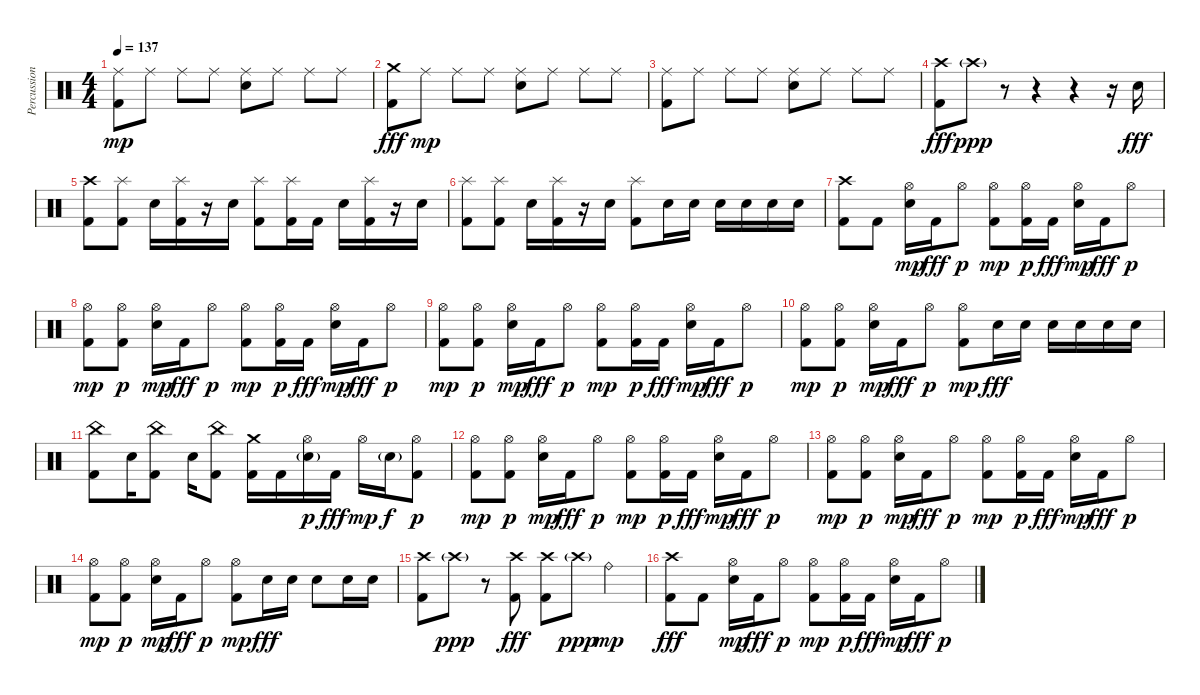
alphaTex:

\track ("Percussion" "Percussion") {instrument percussion}
\staff {score}
\articulation defaults
\ts (4 4)
\tempo 137
\clef neutral
\ks c
("Kick (hit) 2" "Ride (middle)").8{dy mp} "Ride (middle)".8 "Ride (middle)".8 "Ride (middle)".8 ("Electric Snare (hit)" "Ride (middle)").8 "Ride (middle)".8 "Ride (middle)".8 "Ride (middle)".8 |
("Kick (hit) 2" "Crash medium (hit)").8{dy fff} "Ride (middle)".8{dy mp} "Ride (middle)".8 "Ride (middle)".8 ("Electric Snare (hit)" "Ride (middle)").8 "Ride (middle)".8 "Ride (middle)".8 "Ride (middle)".8 |
("Kick (hit) 2" "Ride (middle)").8 "Ride (middle)".8 "Ride (middle)".8 "Ride (middle)".8 ("Electric Snare (hit)" "Ride (middle)").8 "Ride (middle)".8 "Ride (middle)".8 "Ride (middle)".8 |
("Kick (hit) 2" "Crash high (hit)").8{dy fff} "Crash high (hit)"{g}.8{dy ppp} r.8 r.4 r.4 r.16 "Electric Snare (hit)".16{dy fff} |
("Kick (hit) 2" "Crash high (hit)").8 ("Kick (hit) 2" "Splash (hit)").8 "Electric Snare (hit)".16 ("Kick (hit) 2" "Splash (hit)").16 r.16 "Electric Snare (hit)".16 ("Kick (hit) 2" "Splash (hit)").8 ("Kick (hit) 2" "Splash (hit)").16 "Kick (hit) 2".16 "Electric Snare (hit)".16 ("Kick (hit) 2" "Splash (hit)").16 r.16 "Electric Snare (hit)".16 |
("Kick (hit) 2" "Splash (hit)").8 ("Kick (hit) 2" "Splash (hit)").8 "Electric Snare (hit)".16 ("Kick (hit) 2" "Splash (hit)").16 r.16 "Electric Snare (hit)".16 ("Kick (hit) 2" "Splash (hit)").8 "Electric Snare (hit)".16 "Electric Snare (hit)".16 "Electric Snare (hit)".16 "Electric Snare (hit)".16 "Electric Snare (hit)".16 "Electric Snare (hit)".16 |
("Kick (hit) 2" "Crash high (hit)").8 "Kick (hit) 2".8 ("Electric Snare (hit)" "Hi-Hat (open)").16{dy mp} "Kick (hit) 2".16{dy fff} "Hi-Hat (open)".8{dy p} ("Kick (hit) 2" "Hi-Hat (open)").8{dy mp} ("Kick (hit) 2" "Hi-Hat (open)").16{dy p} "Kick (hit) 2".16{dy fff} ("Electric Snare (hit)" "Hi-Hat (open)").16{dy mp} "Kick (hit) 2".16{dy fff} "Hi-Hat (open)".8{dy p} |
("Kick (hit) 2" "Hi-Hat (open)").8{dy mp} ("Kick (hit) 2" "Hi-Hat (open)").8{dy p} ("Electric Snare (hit)" "Hi-Hat (open)").16{dy mp} "Kick (hit) 2".16{dy fff} "Hi-Hat (open)".8{dy p} ("Kick (hit) 2" "Hi-Hat (open)").8{dy mp} ("Kick (hit) 2" "Hi-Hat (open)").16{dy p} "Kick (hit) 2".16{dy fff} ("Electric Snare (hit)" "Hi-Hat (open)").16{dy mp} "Kick (hit) 2".16{dy fff} "Hi-Hat (open)".8{dy p} |
("Kick (hit) 2" "Hi-Hat (open)").8{dy mp} ("Kick (hit) 2" "Hi-Hat (open)").8{dy p} ("Electric Snare (hit)" "Hi-Hat (open)").16{dy mp} "Kick (hit) 2".16{dy fff} "Hi-Hat (open)".8{dy p} ("Kick (hit) 2" "Hi-Hat (open)").8{dy mp} ("Kick (hit) 2" "Hi-Hat (open)").16{dy p} "Kick (hit) 2".16{dy fff} ("Electric Snare (hit)" "Hi-Hat (open)").16{dy mp} "Kick (hit) 2".16{dy fff} "Hi-Hat (open)".8{dy p} |
("Kick (hit) 2" "Hi-Hat (open)").8{dy mp} ("Kick (hit) 2" "Hi-Hat (open)").8{dy p} ("Electric Snare (hit)" "Hi-Hat (open)").16{dy mp} "Kick (hit) 2".16{dy fff} "Hi-Hat (open)".8{dy p} ("Kick (hit) 2" "Hi-Hat (open)").8{dy mp} "Electric Snare (hit)".16{dy fff} "Electric Snare (hit)".16 "Electric Snare (hit)".16 "Electric Snare (hit)".16 "Electric Snare (hit)".16 "Electric Snare (hit)".16 |
("Kick (hit) 2" "China (hit)").8 "Electric Snare (hit)".16 ("Kick (hit) 2" "China (hit)").8 "Electric Snare (hit)".16 ("Kick (hit) 2" "China (hit)").8 ("Kick (hit) 2" "Crash medium (hit)").16 "Kick (hit) 2".16 ("Electric Snare (hit)"{g} "Hi-Hat (open)").16{dy p} "Kick (hit) 2".16{dy fff} "Hi-Hat (open)".16{dy mp} "Electric Snare (hit)"{g}.16{dy f} ("Kick (hit) 2" "Hi-Hat (open)").8{dy p} |
("Kick (hit) 2" "Hi-Hat (open)").8{dy mp} ("Kick (hit) 2" "Hi-Hat (open)").8{dy p} ("Electric Snare (hit)" "Hi-Hat (open)").16{dy mp} "Kick (hit) 2".16{dy fff} "Hi-Hat (open)".8{dy p} ("Kick (hit) 2" "Hi-Hat (open)").8{dy mp} ("Kick (hit) 2" "Hi-Hat (open)").16{dy p} "Kick (hit) 2".16{dy fff} ("Electric Snare (hit)" "Hi-Hat (open)").16{dy mp} "Kick (hit) 2".16{dy fff} "Hi-Hat (open)".8{dy p} |
("Kick (hit) 2" "Hi-Hat (open)").8{dy mp} ("Kick (hit) 2" "Hi-Hat (open)").8{dy p} ("Electric Snare (hit)" "Hi-Hat (open)").16{dy mp} "Kick (hit) 2".16{dy fff} "Hi-Hat (open)".8{dy p} ("Kick (hit) 2" "Hi-Hat (open)").8{dy mp} ("Kick (hit) 2" "Hi-Hat (open)").16{dy p} "Kick (hit) 2".16{dy fff} ("Electric Snare (hit)" "Hi-Hat (open)").16{dy mp} "Kick (hit) 2".16{dy fff} "Hi-Hat (open)".8{dy p} |
("Kick (hit) 2" "Hi-Hat (open)").8{dy mp} ("Kick (hit) 2" "Hi-Hat (open)").8{dy p} ("Electric Snare (hit)" "Hi-Hat (open)").16{dy mp} "Kick (hit) 2".16{dy fff} "Hi-Hat (open)".8{dy p} ("Kick (hit) 2" "Hi-Hat (open)").8{dy mp} "Electric Snare (hit)".16{dy fff} "Electric Snare (hit)".16 "Electric Snare (hit)".8 "Electric Snare (hit)".16 "Electric Snare (hit)".16 |
("Kick (hit) 2" "Crash high (hit)").8 "Crash high (hit)"{g}.8{dy ppp} r.8 ("Kick (hit) 2" "Crash high (hit)").8{dy fff} ("Kick (hit) 2" "Crash high (hit)").8 "Crash high (hit)"{g}.8{dy ppp} "Ride (bell)".4{dy mp} |
("Kick (hit) 2" "Crash high (hit)").8{dy fff} "Kick (hit) 2".8 ("Electric Snare (hit)" "Hi-Hat (open)").16{dy mp} "Kick (hit) 2".16{dy fff} "Hi-Hat (open)".8{dy p} ("Kick (hit) 2" "Hi-Hat (open)").8{dy mp} ("Kick (hit) 2" "Hi-Hat (open)").16{dy p} "Kick (hit) 2".16{dy fff} ("Electric Snare (hit)" "Hi-Hat (open)").16{dy mp} "Kick (hit) 2".16{dy fff} "Hi-Hat (open)".8{dy p}
